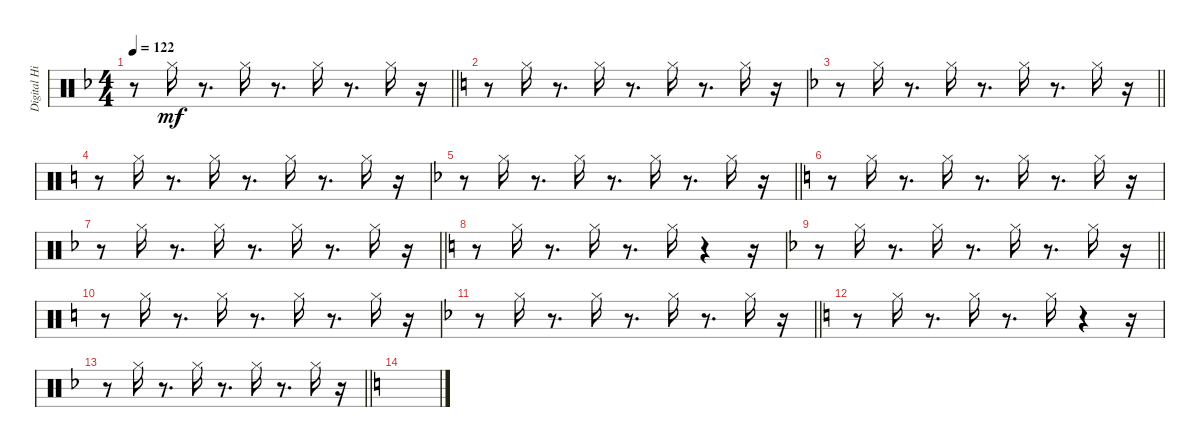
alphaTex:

\track ("Digital Hi-Hat (Stephen Morris)" "Digital Hi") {instrument percussion}
\staff {score}
\articulation defaults
\ts (4 4)
\tempo 122
\clef neutral
\barLineRight lightlight
\ks f
r.8{dy mf} "Hi-Hat (closed)".16 r.8{d} "Hi-Hat (closed)".16 r.8{d} "Hi-Hat (closed)".16 r.8{d} "Hi-Hat (closed)".16 r.16 |
\ks c
r.8 "Hi-Hat (closed)".16 r.8{d} "Hi-Hat (closed)".16 r.8{d} "Hi-Hat (closed)".16 r.8{d} "Hi-Hat (closed)".16 r.16 |
\barLineRight lightlight
\ks f
r.8 "Hi-Hat (closed)".16 r.8{d} "Hi-Hat (closed)".16 r.8{d} "Hi-Hat (closed)".16 r.8{d} "Hi-Hat (closed)".16 r.16 |
\ks c
r.8 "Hi-Hat (closed)".16 r.8{d} "Hi-Hat (closed)".16 r.8{d} "Hi-Hat (closed)".16 r.8{d} "Hi-Hat (closed)".16 r.16 |
\barLineRight lightlight
\ks f
r.8 "Hi-Hat (closed)".16 r.8{d} "Hi-Hat (closed)".16 r.8{d} "Hi-Hat (closed)".16 r.8{d} "Hi-Hat (closed)".16 r.16 |
\ks c
r.8 "Hi-Hat (closed)".16 r.8{d} "Hi-Hat (closed)".16 r.8{d} "Hi-Hat (closed)".16 r.8{d} "Hi-Hat (closed)".16 r.16 |
\barLineRight lightlight
\ks f
r.8 "Hi-Hat (closed)".16 r.8{d} "Hi-Hat (closed)".16 r.8{d} "Hi-Hat (closed)".16 r.8{d} "Hi-Hat (closed)".16 r.16 |
\ks c
r.8 "Hi-Hat (closed)".16 r.8{d} "Hi-Hat (closed)".16 r.8{d} "Hi-Hat (closed)".16 r.4 r.16 |
\barLineRight lightlight
\ks f
r.8 "Hi-Hat (closed)".16 r.8{d} "Hi-Hat (closed)".16 r.8{d} "Hi-Hat (closed)".16 r.8{d} "Hi-Hat (closed)".16 r.16 |
\ks c
r.8 "Hi-Hat (closed)".16 r.8{d} "Hi-Hat (closed)".16 r.8{d} "Hi-Hat (closed)".16 r.8{d} "Hi-Hat (closed)".16 r.16 |
\barLineRight lightlight
\ks f
r.8 "Hi-Hat (closed)".16 r.8{d} "Hi-Hat (closed)".16 r.8{d} "Hi-Hat (closed)".16 r.8{d} "Hi-Hat (closed)".16 r.16 |
\ks c
r.8 "Hi-Hat (closed)".16 r.8{d} "Hi-Hat (closed)".16 r.8{d} "Hi-Hat (closed)".16 r.4 r.16 |
\barLineRight lightlight
\ks f
r.8 "Hi-Hat (closed)".16 r.8{d} "Hi-Hat (closed)".16 r.8{d} "Hi-Hat (closed)".16 r.8{d} "Hi-Hat (closed)".16 r.16 |
\ks c
